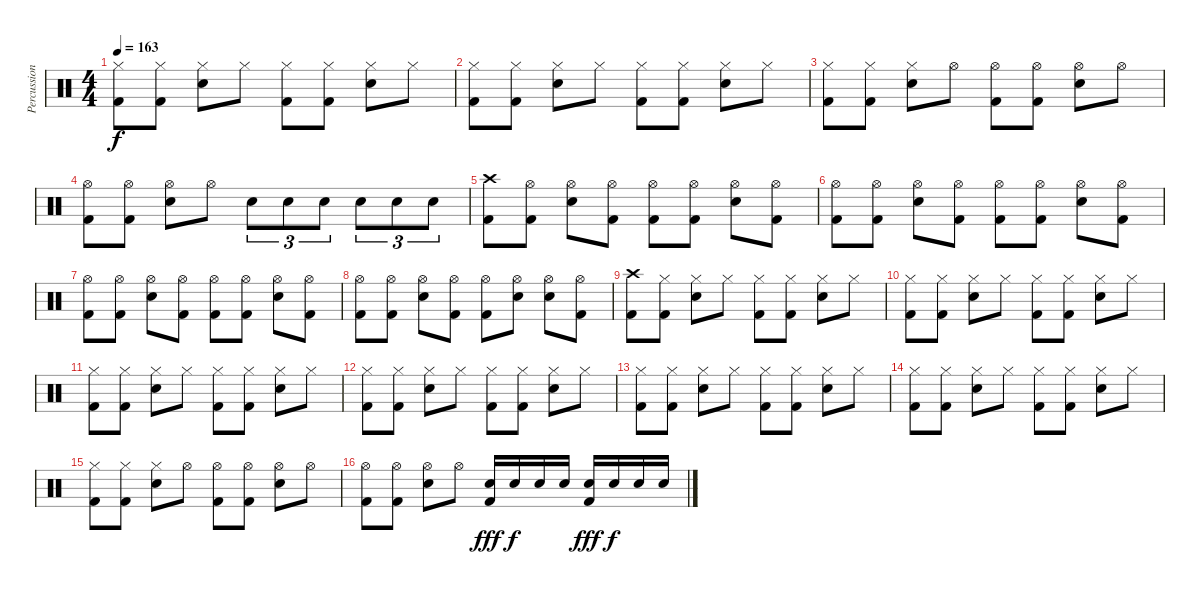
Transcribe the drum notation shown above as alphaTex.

\track ("Percussion" "Percussion") {instrument percussion}
\staff {score}
\articulation defaults
\ts (4 4)
\tempo 163
\clef neutral
\ks c
("Hi-Hat (closed)" "Kick (hit) 2").8{dy f} ("Hi-Hat (closed)" "Kick (hit) 2").8 ("Hi-Hat (closed)" "Snare (hit) 2").8 "Hi-Hat (closed)".8 ("Hi-Hat (closed)" "Kick (hit) 2").8 ("Hi-Hat (closed)" "Kick (hit) 2").8 ("Hi-Hat (closed)" "Snare (hit) 2").8 "Hi-Hat (closed)".8 |
("Hi-Hat (closed)" "Kick (hit) 2").8 ("Hi-Hat (closed)" "Kick (hit) 2").8 ("Hi-Hat (closed)" "Snare (hit) 2").8 "Hi-Hat (closed)".8 ("Hi-Hat (closed)" "Kick (hit) 2").8 ("Hi-Hat (closed)" "Kick (hit) 2").8 ("Hi-Hat (closed)" "Snare (hit) 2").8 "Hi-Hat (closed)".8 |
("Hi-Hat (closed)" "Kick (hit) 2").8 ("Hi-Hat (closed)" "Kick (hit) 2").8 ("Hi-Hat (closed)" "Snare (hit) 2").8 "Hi-Hat (open)".8 ("Hi-Hat (open)" "Kick (hit) 2").8 ("Hi-Hat (open)" "Kick (hit) 2").8 ("Hi-Hat (open)" "Snare (hit) 2").8 "Hi-Hat (open)".8 |
("Hi-Hat (open)" "Kick (hit) 2").8 ("Hi-Hat (open)" "Kick (hit) 2").8 ("Hi-Hat (open)" "Snare (hit) 2").8 "Hi-Hat (open)".8 "Snare (hit) 2".8{tu (3 2)} "Snare (hit) 2".8{tu (3 2)} "Snare (hit) 2".8{tu (3 2)} "Snare (hit) 2".8{tu (3 2)} "Snare (hit) 2".8{tu (3 2)} "Snare (hit) 2".8{tu (3 2)} |
("Crash high (hit)" "Kick (hit) 2").8 ("Hi-Hat (open)" "Kick (hit) 2").8 ("Hi-Hat (open)" "Snare (hit) 2").8 ("Hi-Hat (open)" "Kick (hit) 2").8 ("Hi-Hat (open)" "Kick (hit) 2").8 ("Hi-Hat (open)" "Kick (hit) 2").8 ("Hi-Hat (open)" "Snare (hit) 2").8 ("Hi-Hat (open)" "Kick (hit) 2").8 |
("Hi-Hat (open)" "Kick (hit) 2").8 ("Hi-Hat (open)" "Kick (hit) 2").8 ("Hi-Hat (open)" "Snare (hit) 2").8 ("Hi-Hat (open)" "Kick (hit) 2").8 ("Hi-Hat (open)" "Kick (hit) 2").8 ("Hi-Hat (open)" "Kick (hit) 2").8 ("Hi-Hat (open)" "Snare (hit) 2").8 ("Hi-Hat (open)" "Kick (hit) 2").8 |
("Hi-Hat (open)" "Kick (hit) 2").8 ("Hi-Hat (open)" "Kick (hit) 2").8 ("Hi-Hat (open)" "Snare (hit) 2").8 ("Hi-Hat (open)" "Kick (hit) 2").8 ("Hi-Hat (open)" "Kick (hit) 2").8 ("Hi-Hat (open)" "Kick (hit) 2").8 ("Hi-Hat (open)" "Snare (hit) 2").8 ("Hi-Hat (open)" "Kick (hit) 2").8 |
("Hi-Hat (open)" "Kick (hit) 2").8 ("Hi-Hat (open)" "Kick (hit) 2").8 ("Hi-Hat (open)" "Snare (hit) 2").8 ("Hi-Hat (open)" "Kick (hit) 2").8 ("Hi-Hat (open)" "Kick (hit) 2").8 ("Hi-Hat (open)" "Snare (hit) 2").8 ("Hi-Hat (open)" "Snare (hit) 2").8 ("Hi-Hat (open)" "Kick (hit) 2").8 |
("Crash high (hit)" "Kick (hit) 2").8 ("Hi-Hat (closed)" "Kick (hit) 2").8 ("Hi-Hat (closed)" "Snare (hit) 2").8 "Hi-Hat (closed)".8 ("Hi-Hat (closed)" "Kick (hit) 2").8 ("Hi-Hat (closed)" "Kick (hit) 2").8 ("Hi-Hat (closed)" "Snare (hit) 2").8 "Hi-Hat (closed)".8 |
("Hi-Hat (closed)" "Kick (hit) 2").8 ("Hi-Hat (closed)" "Kick (hit) 2").8 ("Hi-Hat (closed)" "Snare (hit) 2").8 "Hi-Hat (closed)".8 ("Hi-Hat (closed)" "Kick (hit) 2").8 ("Hi-Hat (closed)" "Kick (hit) 2").8 ("Hi-Hat (closed)" "Snare (hit) 2").8 "Hi-Hat (closed)".8 |
("Hi-Hat (closed)" "Kick (hit) 2").8 ("Hi-Hat (closed)" "Kick (hit) 2").8 ("Hi-Hat (closed)" "Snare (hit) 2").8 "Hi-Hat (closed)".8 ("Hi-Hat (closed)" "Kick (hit) 2").8 ("Hi-Hat (closed)" "Kick (hit) 2").8 ("Hi-Hat (closed)" "Snare (hit) 2").8 "Hi-Hat (closed)".8 |
("Hi-Hat (closed)" "Kick (hit) 2").8 ("Hi-Hat (closed)" "Kick (hit) 2").8 ("Hi-Hat (closed)" "Snare (hit) 2").8 "Hi-Hat (closed)".8 ("Hi-Hat (closed)" "Kick (hit) 2").8 ("Hi-Hat (closed)" "Kick (hit) 2").8 ("Hi-Hat (closed)" "Snare (hit) 2").8 "Hi-Hat (closed)".8 |
("Hi-Hat (closed)" "Kick (hit) 2").8 ("Hi-Hat (closed)" "Kick (hit) 2").8 ("Hi-Hat (closed)" "Snare (hit) 2").8 "Hi-Hat (closed)".8 ("Hi-Hat (closed)" "Kick (hit) 2").8 ("Hi-Hat (closed)" "Kick (hit) 2").8 ("Hi-Hat (closed)" "Snare (hit) 2").8 "Hi-Hat (closed)".8 |
("Hi-Hat (closed)" "Kick (hit) 2").8 ("Hi-Hat (closed)" "Kick (hit) 2").8 ("Hi-Hat (closed)" "Snare (hit) 2").8 "Hi-Hat (closed)".8 ("Hi-Hat (closed)" "Kick (hit) 2").8 ("Hi-Hat (closed)" "Kick (hit) 2").8 ("Hi-Hat (closed)" "Snare (hit) 2").8 "Hi-Hat (closed)".8 |
("Hi-Hat (closed)" "Kick (hit) 2").8 ("Hi-Hat (closed)" "Kick (hit) 2").8 ("Hi-Hat (closed)" "Snare (hit) 2").8 "Hi-Hat (open)".8 ("Hi-Hat (open)" "Kick (hit) 2").8 ("Hi-Hat (open)" "Kick (hit) 2").8 ("Hi-Hat (open)" "Snare (hit) 2").8 "Hi-Hat (open)".8 |
("Hi-Hat (open)" "Kick (hit) 2").8 ("Hi-Hat (open)" "Kick (hit) 2").8 ("Hi-Hat (open)" "Snare (hit) 2").8 "Hi-Hat (open)".8 ("Snare (hit) 2" "Kick (hit) 2").16{dy fff} "Snare (hit) 2".16{dy f} "Snare (hit) 2".16 "Snare (hit) 2".16 ("Snare (hit) 2" "Kick (hit) 2").16{dy fff} "Snare (hit) 2".16{dy f} "Snare (hit) 2".16 "Snare (hit) 2".16
